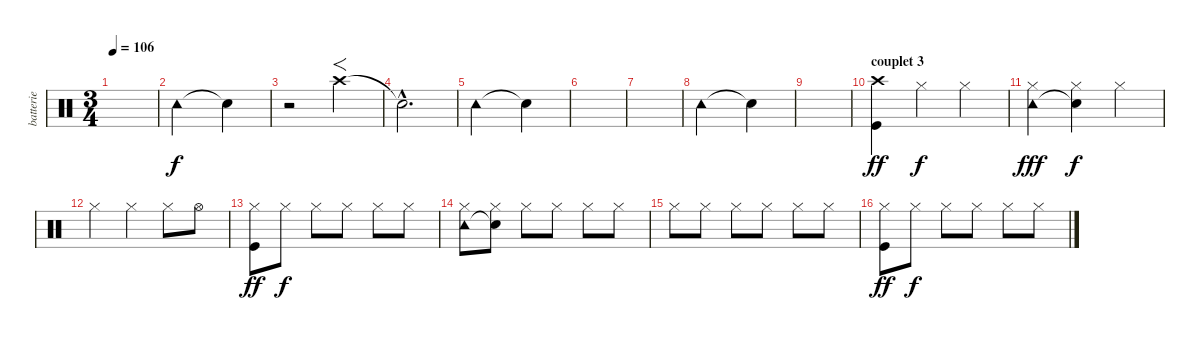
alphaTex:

\track ("batterie" "batterie") {instrument percussion}
\staff {score}
\articulation defaults
\ts (3 4)
\tempo 106
\clef neutral
\ks c
|
"Tambourine (hit)".2 "Snare (hit)"{t}.4 |
r.2 "Crash high (hit)".4{f} |
"Snare (hit)"{hac t}.2{d} |
"Tambourine (hit)".2 "Snare (hit)"{t}.4 |
|
|
"Tambourine (hit)".2 "Snare (hit)"{t}.4 |
|
\section ("" "couplet 3")
("Crash high (hit)" "Kick (hit)").4{dy ff} "Hi-Hat (closed)".4{dy f} "Hi-Hat (closed)".4 |
("Tambourine (hit)" "Hi-Hat (closed)").4{dy fff} ("Snare (hit)"{t} "Hi-Hat (closed)").4{dy f} "Hi-Hat (closed)".4 |
"Hi-Hat (closed)".4 "Hi-Hat (closed)".4 "Hi-Hat (closed)".8 "Hi-Hat (open)".8 |
("Hi-Hat (closed)" "Kick (hit)").8{dy ff} "Hi-Hat (closed)".8{dy f} "Hi-Hat (closed)".8 "Hi-Hat (closed)".8 "Hi-Hat (closed)".8 "Hi-Hat (closed)".8 |
("Tambourine (hit)" "Hi-Hat (closed)").8 ("Snare (hit)"{t} "Hi-Hat (closed)").8 "Hi-Hat (closed)".8 "Hi-Hat (closed)".8 "Hi-Hat (closed)".8 "Hi-Hat (closed)".8 |
"Hi-Hat (closed)".8 "Hi-Hat (closed)".8 "Hi-Hat (closed)".8 "Hi-Hat (closed)".8 "Hi-Hat (closed)".8 "Hi-Hat (closed)".8 |
("Hi-Hat (closed)" "Kick (hit)").8{dy ff} "Hi-Hat (closed)".8{dy f} "Hi-Hat (closed)".8 "Hi-Hat (closed)".8 "Hi-Hat (closed)".8 "Hi-Hat (closed)".8
